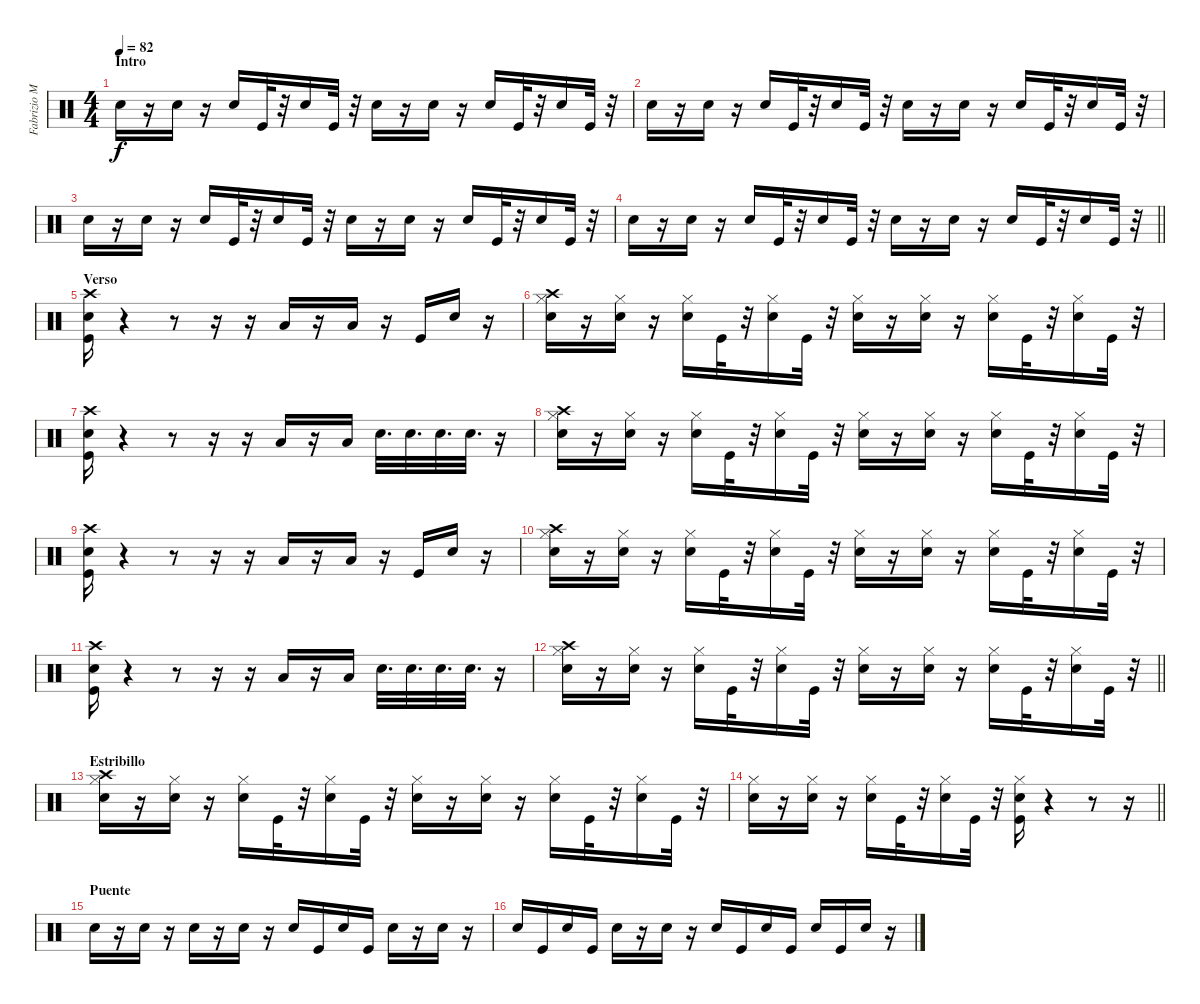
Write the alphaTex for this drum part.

\track ("Fabrizio Moretti" "Fabrizio M") {instrument percussion}
\staff {score}
\articulation defaults
\ts (4 4)
\section ("" "Intro")
\tempo 82
\clef neutral
\ks c "Snare (hit) 2".16{dy f}
r.16 "Snare (hit) 2".16 r.16 "Snare (hit) 2".16 "Kick (hit)".32 r.32 "Snare (hit) 2".16 "Kick (hit)".32 r.32 "Snare (hit) 2".16 r.16 "Snare (hit) 2".16 r.16 "Snare (hit) 2".16 "Kick (hit)".32 r.32 "Snare (hit) 2".16 "Kick (hit)".32 r.32 |
"Snare (hit) 2".16 r.16 "Snare (hit) 2".16 r.16 "Snare (hit) 2".16 "Kick (hit)".32 r.32 "Snare (hit) 2".16 "Kick (hit)".32 r.32 "Snare (hit) 2".16 r.16 "Snare (hit) 2".16 r.16 "Snare (hit) 2".16 "Kick (hit)".32 r.32 "Snare (hit) 2".16 "Kick (hit)".32 r.32 |
"Snare (hit) 2".16 r.16 "Snare (hit) 2".16 r.16 "Snare (hit) 2".16 "Kick (hit)".32 r.32 "Snare (hit) 2".16 "Kick (hit)".32 r.32 "Snare (hit) 2".16 r.16 "Snare (hit) 2".16 r.16 "Snare (hit) 2".16 "Kick (hit)".32 r.32 "Snare (hit) 2".16 "Kick (hit)".32 r.32 |
\barLineRight lightlight "Snare (hit) 2".16
r.16 "Snare (hit) 2".16 r.16 "Snare (hit) 2".16 "Kick (hit)".32 r.32 "Snare (hit) 2".16 "Kick (hit)".32 r.32 "Snare (hit) 2".16 r.16 "Snare (hit) 2".16 r.16 "Snare (hit) 2".16 "Kick (hit)".32 r.32 "Snare (hit) 2".16 "Kick (hit)".32 r.32 |
\section ("" "Verso")
("Snare (hit) 2" "Kick (hit)" "Crash high (hit)").16 r.4 r.8 r.16 r.16 "Low Tom (hit)".16 r.16 "Low Floor Tom (hit)".16 r.16 "Kick (hit)".16 "Snare (hit) 2".16 r.16 |
("Snare (hit) 2" "Crash high (hit)" "Hi-Hat (closed)").16 r.16 ("Snare (hit) 2" "Hi-Hat (closed)").16 r.16 ("Snare (hit) 2" "Hi-Hat (closed)").16 "Kick (hit)".32 r.32 ("Snare (hit) 2" "Hi-Hat (closed)").16 "Kick (hit)".32 r.32 ("Snare (hit) 2" "Hi-Hat (closed)").16 r.16 ("Snare (hit) 2" "Hi-Hat (closed)").16 r.16 ("Snare (hit) 2" "Hi-Hat (closed)").16 "Kick (hit)".32 r.32 ("Snare (hit) 2" "Hi-Hat (closed)").16 "Kick (hit)".32 r.32 |
("Snare (hit) 2" "Kick (hit)" "Crash high (hit)").16 r.4 r.8 r.16 r.16 "Low Tom (hit)".16 r.16 "Low Floor Tom (hit)".16 "Snare (hit) 2".32{d} "Snare (hit) 2".32{d} "Snare (hit) 2".32{d} "Snare (hit) 2".32{d} r.16 |
("Snare (hit) 2" "Crash high (hit)" "Hi-Hat (closed)").16 r.16 ("Snare (hit) 2" "Hi-Hat (closed)").16 r.16 ("Snare (hit) 2" "Hi-Hat (closed)").16 "Kick (hit)".32 r.32 ("Snare (hit) 2" "Hi-Hat (closed)").16 "Kick (hit)".32 r.32 ("Snare (hit) 2" "Hi-Hat (closed)").16 r.16 ("Snare (hit) 2" "Hi-Hat (closed)").16 r.16 ("Snare (hit) 2" "Hi-Hat (closed)").16 "Kick (hit)".32 r.32 ("Snare (hit) 2" "Hi-Hat (closed)").16 "Kick (hit)".32 r.32 |
("Snare (hit) 2" "Kick (hit)" "Crash high (hit)").16 r.4 r.8 r.16 r.16 "Low Tom (hit)".16 r.16 "Low Floor Tom (hit)".16 r.16 "Kick (hit)".16 "Snare (hit) 2".16 r.16 |
("Snare (hit) 2" "Crash high (hit)" "Hi-Hat (closed)").16 r.16 ("Snare (hit) 2" "Hi-Hat (closed)").16 r.16 ("Snare (hit) 2" "Hi-Hat (closed)").16 "Kick (hit)".32 r.32 ("Snare (hit) 2" "Hi-Hat (closed)").16 "Kick (hit)".32 r.32 ("Snare (hit) 2" "Hi-Hat (closed)").16 r.16 ("Snare (hit) 2" "Hi-Hat (closed)").16 r.16 ("Snare (hit) 2" "Hi-Hat (closed)").16 "Kick (hit)".32 r.32 ("Snare (hit) 2" "Hi-Hat (closed)").16 "Kick (hit)".32 r.32 |
("Snare (hit) 2" "Kick (hit)" "Crash high (hit)").16 r.4 r.8 r.16 r.16 "Low Tom (hit)".16 r.16 "Low Floor Tom (hit)".16 "Snare (hit) 2".32{d} "Snare (hit) 2".32{d} "Snare (hit) 2".32{d} "Snare (hit) 2".32{d} r.16 |
\barLineRight lightlight
("Snare (hit) 2" "Crash high (hit)" "Hi-Hat (closed)").16 r.16 ("Snare (hit) 2" "Hi-Hat (closed)").16 r.16 ("Snare (hit) 2" "Hi-Hat (closed)").16 "Kick (hit)".32 r.32 ("Snare (hit) 2" "Hi-Hat (closed)").16 "Kick (hit)".32 r.32 ("Snare (hit) 2" "Hi-Hat (closed)").16 r.16 ("Snare (hit) 2" "Hi-Hat (closed)").16 r.16 ("Snare (hit) 2" "Hi-Hat (closed)").16 "Kick (hit)".32 r.32 ("Snare (hit) 2" "Hi-Hat (closed)").16 "Kick (hit)".32 r.32 |
\section ("" "Estribillo")
("Snare (hit) 2" "Crash high (hit)" "Hi-Hat (closed)").16 r.16 ("Snare (hit) 2" "Hi-Hat (closed)").16 r.16 ("Snare (hit) 2" "Hi-Hat (closed)").16 "Kick (hit)".32 r.32 ("Snare (hit) 2" "Hi-Hat (closed)").16 "Kick (hit)".32 r.32 ("Snare (hit) 2" "Hi-Hat (closed)").16 r.16 ("Snare (hit) 2" "Hi-Hat (closed)").16 r.16 ("Snare (hit) 2" "Hi-Hat (closed)").16 "Kick (hit)".32 r.32 ("Snare (hit) 2" "Hi-Hat (closed)").16 "Kick (hit)".32 r.32 |
\barLineRight lightlight
("Snare (hit) 2" "Hi-Hat (closed)").16 r.16 ("Snare (hit) 2" "Hi-Hat (closed)").16 r.16 ("Snare (hit) 2" "Hi-Hat (closed)").16 "Kick (hit)".32 r.32 ("Snare (hit) 2" "Hi-Hat (closed)").16 "Kick (hit)".32 r.32 ("Snare (hit) 2" "Kick (hit)" "Hi-Hat (closed)").16 r.4 r.8 r.16 |
\section ("" "Puente")
"Snare (hit) 2".16 r.16 "Snare (hit) 2".16 r.16 "Snare (hit) 2".16 r.16 "Snare (hit) 2".16 r.16 "Snare (hit) 2".16 "Kick (hit)".16 "Snare (hit) 2".16 "Kick (hit)".16 "Snare (hit) 2".16 r.16 "Snare (hit) 2".16 r.16 |
"Snare (hit) 2".16 "Kick (hit)".16 "Snare (hit) 2".16 "Kick (hit)".16 "Snare (hit) 2".16 r.16 "Snare (hit) 2".16 r.16 "Snare (hit) 2".16 "Kick (hit)".16 "Snare (hit) 2".16 "Kick (hit)".16 "Snare (hit) 2".16 "Kick (hit)".16 "Snare (hit) 2".16 r.16
